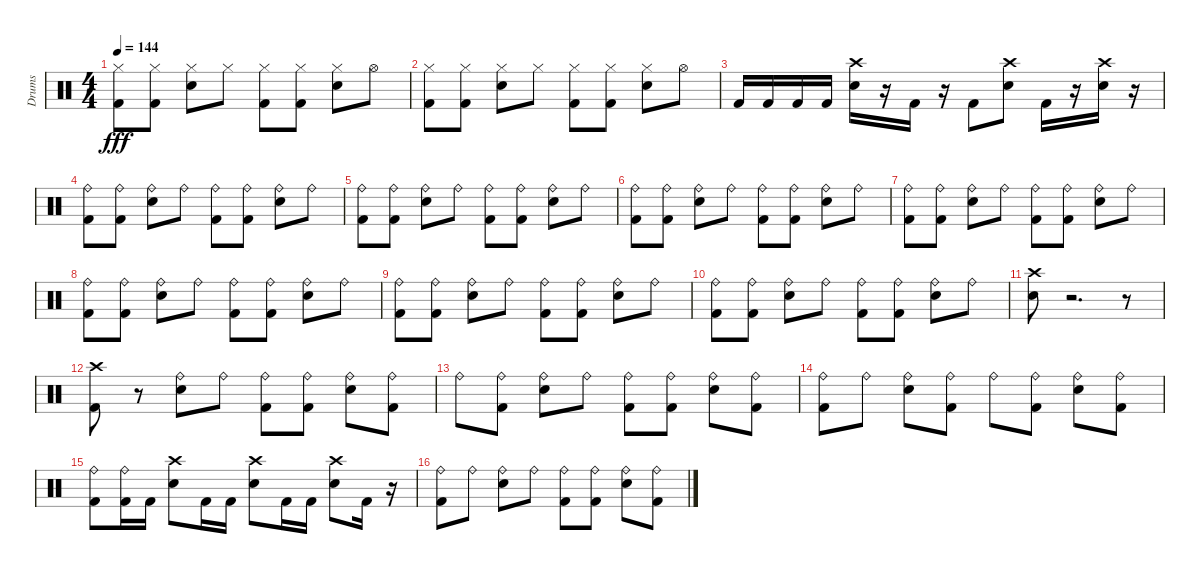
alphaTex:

\track ("Drums" "Drums") {instrument percussion}
\staff {score}
\articulation defaults
\ts (4 4)
\tempo 144
\clef neutral
\ks c
("Kick (hit) 2" "Hi-Hat (closed)").8{dy fff} ("Kick (hit) 2" "Hi-Hat (closed)").8 ("Snare (hit) 2" "Hi-Hat (closed)").8 "Hi-Hat (closed)".8 ("Kick (hit) 2" "Hi-Hat (closed)").8 ("Kick (hit) 2" "Hi-Hat (closed)").8 ("Snare (hit) 2" "Hi-Hat (closed)").8 "Hi-Hat (open)".8 |
("Hi-Hat (closed)" "Kick (hit) 2").8 ("Kick (hit) 2" "Hi-Hat (closed)").8 ("Snare (hit) 2" "Hi-Hat (closed)").8 "Hi-Hat (closed)".8 ("Kick (hit) 2" "Hi-Hat (closed)").8 ("Kick (hit) 2" "Hi-Hat (closed)").8 ("Snare (hit) 2" "Hi-Hat (closed)").8 "Hi-Hat (open)".8 |
"Kick (hit) 2".16 "Kick (hit) 2".16 "Kick (hit) 2".16 "Kick (hit) 2".16 ("Snare (hit) 2" "Crash high (hit)").16 r.16 "Kick (hit) 2".16 r.16 "Kick (hit) 2".8 ("Snare (hit) 2" "Crash high (hit)").8 "Kick (hit) 2".16 r.16 ("Snare (hit) 2" "Crash high (hit)").16 r.16 |
("Ride (bell)" "Kick (hit) 2").8 ("Kick (hit) 2" "Ride (bell)").8 ("Snare (hit) 2" "Ride (bell)").8 "Ride (bell)".8 ("Kick (hit) 2" "Ride (bell)").8 ("Kick (hit) 2" "Ride (bell)").8 ("Snare (hit) 2" "Ride (bell)").8 "Ride (bell)".8 |
("Ride (bell)" "Kick (hit) 2").8 ("Kick (hit) 2" "Ride (bell)").8 ("Snare (hit) 2" "Ride (bell)").8 "Ride (bell)".8 ("Kick (hit) 2" "Ride (bell)").8 ("Kick (hit) 2" "Ride (bell)").8 ("Snare (hit) 2" "Ride (bell)").8 "Ride (bell)".8 |
("Ride (bell)" "Kick (hit) 2").8 ("Kick (hit) 2" "Ride (bell)").8 ("Snare (hit) 2" "Ride (bell)").8 "Ride (bell)".8 ("Kick (hit) 2" "Ride (bell)").8 ("Kick (hit) 2" "Ride (bell)").8 ("Snare (hit) 2" "Ride (bell)").8 "Ride (bell)".8 |
("Ride (bell)" "Kick (hit) 2").8 ("Kick (hit) 2" "Ride (bell)").8 ("Snare (hit) 2" "Ride (bell)").8 "Ride (bell)".8 ("Kick (hit) 2" "Ride (bell)").8 ("Kick (hit) 2" "Ride (bell)").8 ("Snare (hit) 2" "Ride (bell)").8 "Ride (bell)".8 |
("Ride (bell)" "Kick (hit) 2").8 ("Kick (hit) 2" "Ride (bell)").8 ("Snare (hit) 2" "Ride (bell)").8 "Ride (bell)".8 ("Kick (hit) 2" "Ride (bell)").8 ("Kick (hit) 2" "Ride (bell)").8 ("Snare (hit) 2" "Ride (bell)").8 "Ride (bell)".8 |
("Kick (hit) 2" "Ride (bell)").8 ("Kick (hit) 2" "Ride (bell)").8 ("Snare (hit) 2" "Ride (bell)").8 "Ride (bell)".8 ("Kick (hit) 2" "Ride (bell)").8 ("Kick (hit) 2" "Ride (bell)").8 ("Snare (hit) 2" "Ride (bell)").8 "Ride (bell)".8 |
("Kick (hit) 2" "Ride (bell)").8 ("Kick (hit) 2" "Ride (bell)").8 ("Snare (hit) 2" "Ride (bell)").8 "Ride (bell)".8 ("Kick (hit) 2" "Ride (bell)").8 ("Kick (hit) 2" "Ride (bell)").8 ("Snare (hit) 2" "Ride (bell)").8 "Ride (bell)".8 |
("Snare (hit) 2" "Crash high (hit)").8 r.2{d} r.8 |
("Kick (hit) 2" "Crash high (hit)").8 r.8 ("Ride (bell)" "Snare (hit) 2").8 "Ride (bell)".8 ("Ride (bell)" "Kick (hit) 2").8 ("Ride (bell)" "Kick (hit) 2").8 ("Ride (bell)" "Snare (hit) 2").8 ("Ride (bell)" "Kick (hit) 2").8 |
"Ride (bell)".8 ("Ride (bell)" "Kick (hit) 2").8 ("Ride (bell)" "Snare (hit) 2").8 "Ride (bell)".8 ("Ride (bell)" "Kick (hit) 2").8 ("Ride (bell)" "Kick (hit) 2").8 ("Ride (bell)" "Snare (hit) 2").8 ("Ride (bell)" "Kick (hit) 2").8 |
("Ride (bell)" "Kick (hit) 2").8 "Ride (bell)".8 ("Ride (bell)" "Snare (hit) 2").8 ("Ride (bell)" "Kick (hit) 2").8 "Ride (bell)".8 ("Ride (bell)" "Kick (hit) 2").8 ("Ride (bell)" "Snare (hit) 2").8 ("Ride (bell)" "Kick (hit) 2").8 |
("Ride (bell)" "Kick (hit) 2").8 ("Ride (bell)" "Kick (hit) 2").16 "Kick (hit) 2".16 ("Snare (hit) 2" "Crash high (hit)").8 "Kick (hit) 2".16 "Kick (hit) 2".16 ("Snare (hit) 2" "Crash high (hit)").8 "Kick (hit) 2".16 "Kick (hit) 2".16 ("Snare (hit) 2" "Crash high (hit)").8 "Kick (hit) 2".16 r.16 |
("Ride (bell)" "Kick (hit) 2").8 "Ride (bell)".8 ("Ride (bell)" "Snare (hit) 2").8 "Ride (bell)".8 ("Ride (bell)" "Kick (hit) 2").8 ("Ride (bell)" "Kick (hit) 2").8 ("Ride (bell)" "Snare (hit) 2").8 ("Ride (bell)" "Kick (hit) 2").8
